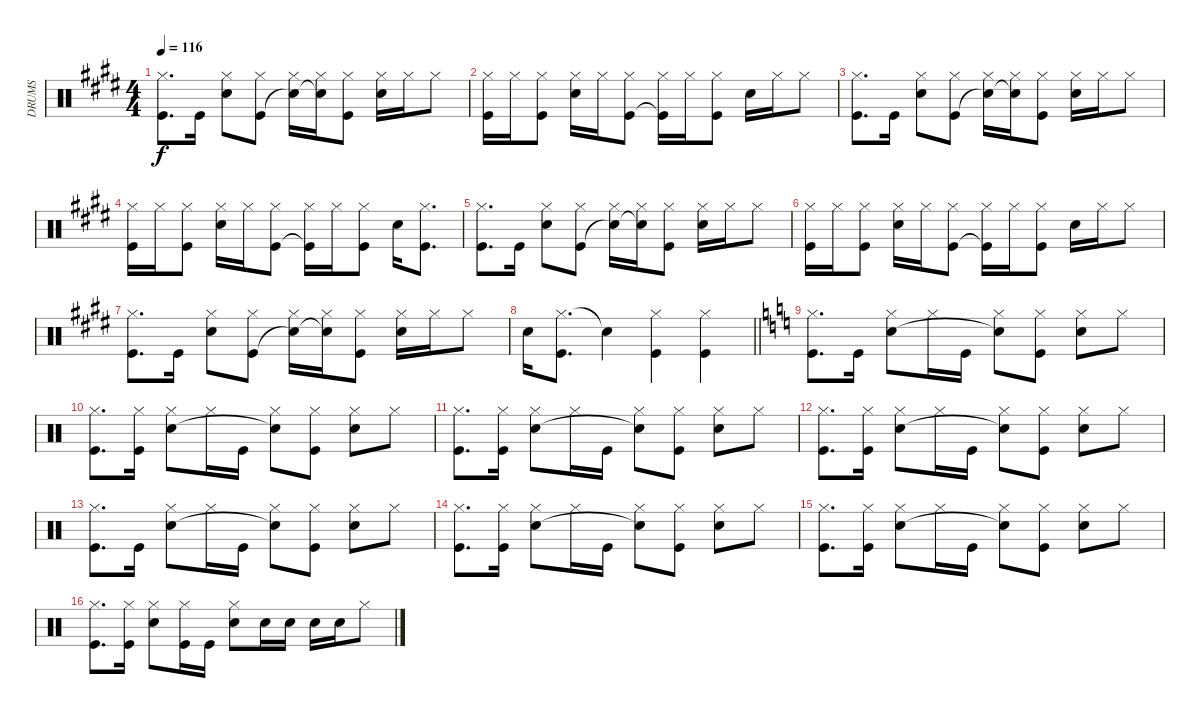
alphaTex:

\track ("DRUMS" "DRUMS") {instrument percussion}
\staff {score}
\articulation defaults
\ts (4 4)
\tempo 116
\clef neutral
\ks c#minor
("Hi-Hat (closed)" "Kick (hit)").8{d dy f} "Kick (hit)".16 ("Hi-Hat (closed)" "Snare (hit) 2").8 ("Hi-Hat (closed)" "Kick (hit)").8 ("Hi-Hat (closed)" "Snare (hit)"{t}).16 ("Hi-Hat (closed)" "Snare (hit)"{t}).16 ("Hi-Hat (closed)" "Kick (hit)").8 ("Hi-Hat (closed)" "Snare (hit) 2").16 "Hi-Hat (closed)".16 "Hi-Hat (closed)".8 |
("Hi-Hat (closed)" "Kick (hit)").16 "Hi-Hat (closed)".16 ("Hi-Hat (closed)" "Kick (hit)").8 ("Hi-Hat (closed)" "Snare (hit) 2").16 "Hi-Hat (closed)".16 ("Hi-Hat (closed)" "Kick (hit)").8 ("Hi-Hat (closed)" "Kick (hit)"{t}).16 "Hi-Hat (closed)".16 ("Hi-Hat (closed)" "Kick (hit)").8 "Snare (hit) 2".16 "Hi-Hat (closed)".16 "Hi-Hat (closed)".8 |
("Hi-Hat (closed)" "Kick (hit)").8{d} "Kick (hit)".16 ("Hi-Hat (closed)" "Snare (hit) 2").8 ("Hi-Hat (closed)" "Kick (hit)").8 ("Hi-Hat (closed)" "Snare (hit)"{t}).16 ("Hi-Hat (closed)" "Snare (hit)"{t}).16 ("Hi-Hat (closed)" "Kick (hit)").8 ("Hi-Hat (closed)" "Snare (hit) 2").16 "Hi-Hat (closed)".16 "Hi-Hat (closed)".8 |
("Hi-Hat (closed)" "Kick (hit)").16 "Hi-Hat (closed)".16 ("Hi-Hat (closed)" "Kick (hit)").8 ("Hi-Hat (closed)" "Snare (hit) 2").16 "Hi-Hat (closed)".16 ("Hi-Hat (closed)" "Kick (hit)").8 ("Hi-Hat (closed)" "Kick (hit)"{t}).16 "Hi-Hat (closed)".16 ("Hi-Hat (closed)" "Kick (hit)").8 "Snare (hit) 2".16 ("Hi-Hat (closed)" "Kick (hit)").8{d} |
("Hi-Hat (closed)" "Kick (hit)").8{d} "Kick (hit)".16 ("Hi-Hat (closed)" "Snare (hit) 2").8 ("Hi-Hat (closed)" "Kick (hit)").8 ("Hi-Hat (closed)" "Snare (hit)"{t}).16 ("Hi-Hat (closed)" "Snare (hit)"{t}).16 ("Hi-Hat (closed)" "Kick (hit)").8 ("Hi-Hat (closed)" "Snare (hit) 2").16 "Hi-Hat (closed)".16 "Hi-Hat (closed)".8 |
("Hi-Hat (closed)" "Kick (hit)").16 "Hi-Hat (closed)".16 ("Hi-Hat (closed)" "Kick (hit)").8 ("Hi-Hat (closed)" "Snare (hit) 2").16 "Hi-Hat (closed)".16 ("Hi-Hat (closed)" "Kick (hit)").8 ("Hi-Hat (closed)" "Kick (hit)"{t}).16 "Hi-Hat (closed)".16 ("Hi-Hat (closed)" "Kick (hit)").8 "Snare (hit) 2".16 "Hi-Hat (closed)".16 "Hi-Hat (closed)".8 |
("Hi-Hat (closed)" "Kick (hit)").8{d} "Kick (hit)".16 ("Hi-Hat (closed)" "Snare (hit) 2").8 ("Hi-Hat (closed)" "Kick (hit)").8 ("Hi-Hat (closed)" "Snare (hit)"{t}).16 ("Hi-Hat (closed)" "Snare (hit)"{t}).16 ("Hi-Hat (closed)" "Kick (hit)").8 ("Hi-Hat (closed)" "Snare (hit) 2").16 "Hi-Hat (closed)".16 "Hi-Hat (closed)".8 |
\barLineRight lightlight "Snare (hit) 2".16
("Hi-Hat (closed)" "Kick (hit)").8{d} "Snare (hit)"{t}.4 ("Hi-Hat (closed)" "Kick (hit)").4 ("Hi-Hat (closed)" "Kick (hit)").4 |
\ks c
("Hi-Hat (closed)" "Kick (hit)").8{d} "Kick (hit)".16 ("Hi-Hat (closed)" "Snare (hit) 2").8 "Hi-Hat (closed)".16 "Kick (hit)".16 ("Hi-Hat (closed)" "Snare (hit)"{t}).8 ("Hi-Hat (closed)" "Kick (hit)").8 ("Hi-Hat (closed)" "Snare (hit) 2").8 "Hi-Hat (closed)".8 |
("Hi-Hat (closed)" "Kick (hit)").8{d} ("Hi-Hat (closed)" "Kick (hit)").16 ("Hi-Hat (closed)" "Snare (hit) 2").8 "Hi-Hat (closed)".16 "Kick (hit)".16 ("Hi-Hat (closed)" "Snare (hit)"{t}).8 ("Hi-Hat (closed)" "Kick (hit)").8 ("Hi-Hat (closed)" "Snare (hit) 2").8 "Hi-Hat (closed)".8 |
("Hi-Hat (closed)" "Kick (hit)").8{d} ("Hi-Hat (closed)" "Kick (hit)").16 ("Hi-Hat (closed)" "Snare (hit) 2").8 "Hi-Hat (closed)".16 "Kick (hit)".16 ("Hi-Hat (closed)" "Snare (hit)"{t}).8 ("Hi-Hat (closed)" "Kick (hit)").8 ("Hi-Hat (closed)" "Snare (hit) 2").8 "Hi-Hat (closed)".8 |
("Hi-Hat (closed)" "Kick (hit)").8{d} ("Hi-Hat (closed)" "Kick (hit)").16 ("Hi-Hat (closed)" "Snare (hit) 2").8 "Hi-Hat (closed)".16 "Kick (hit)".16 ("Hi-Hat (closed)" "Snare (hit)"{t}).8 ("Hi-Hat (closed)" "Kick (hit)").8 ("Hi-Hat (closed)" "Snare (hit) 2").8 "Hi-Hat (closed)".8 |
("Hi-Hat (closed)" "Kick (hit)").8{d} "Kick (hit)".16 ("Hi-Hat (closed)" "Snare (hit) 2").8 "Hi-Hat (closed)".16 "Kick (hit)".16 ("Hi-Hat (closed)" "Snare (hit)"{t}).8 ("Hi-Hat (closed)" "Kick (hit)").8 ("Hi-Hat (closed)" "Snare (hit) 2").8 "Hi-Hat (closed)".8 |
("Hi-Hat (closed)" "Kick (hit)").8{d} ("Hi-Hat (closed)" "Kick (hit)").16 ("Hi-Hat (closed)" "Snare (hit) 2").8 "Hi-Hat (closed)".16 "Kick (hit)".16 ("Hi-Hat (closed)" "Snare (hit)"{t}).8 ("Hi-Hat (closed)" "Kick (hit)").8 ("Hi-Hat (closed)" "Snare (hit) 2").8 "Hi-Hat (closed)".8 |
("Hi-Hat (closed)" "Kick (hit)").8{d} ("Hi-Hat (closed)" "Kick (hit)").16 ("Hi-Hat (closed)" "Snare (hit) 2").8 "Hi-Hat (closed)".16 "Kick (hit)".16 ("Hi-Hat (closed)" "Snare (hit)"{t}).8 ("Hi-Hat (closed)" "Kick (hit)").8 ("Hi-Hat (closed)" "Snare (hit) 2").8 "Hi-Hat (closed)".8 |
("Hi-Hat (closed)" "Kick (hit)").8{d} ("Hi-Hat (closed)" "Kick (hit)").16 ("Hi-Hat (closed)" "Snare (hit) 2").8 ("Hi-Hat (closed)" "Kick (hit)").16 "Kick (hit)".16 ("Hi-Hat (closed)" "Snare (hit) 2").8 "Snare (hit) 2".16 "Snare (hit) 2".16 "Snare (hit) 2".16 "Snare (hit) 2".16 "Hi-Hat (closed)".8
